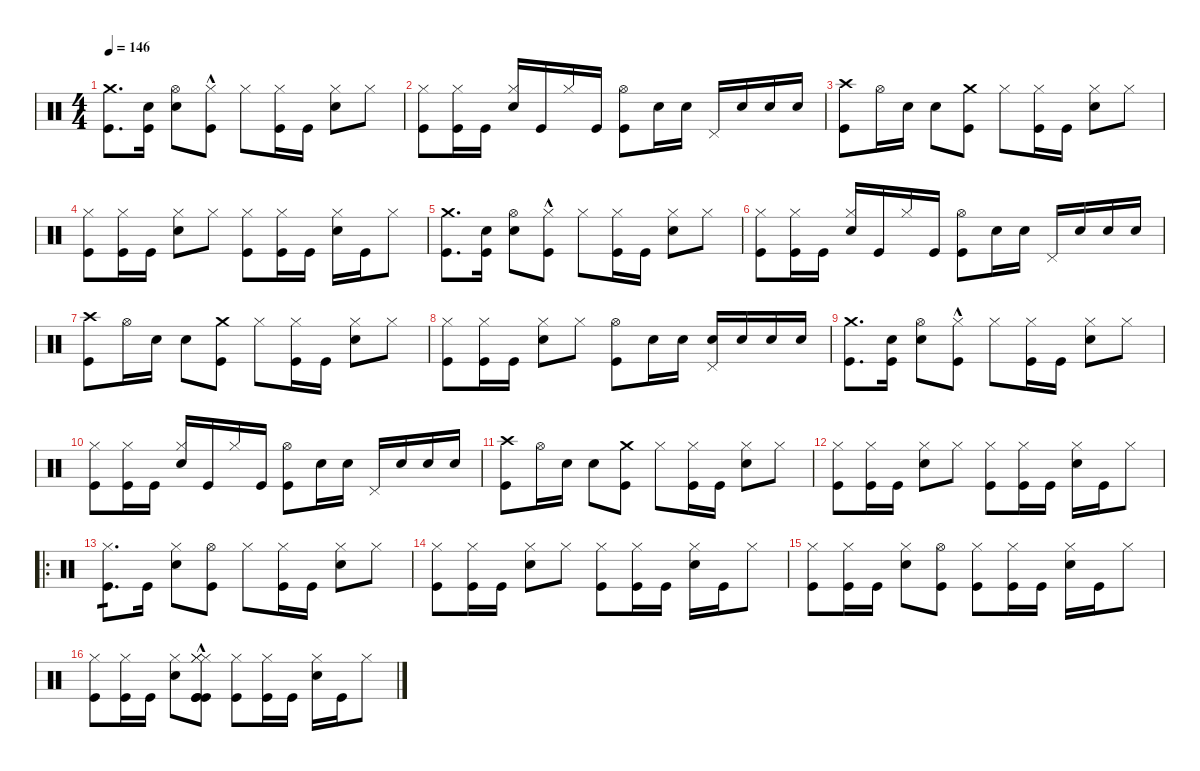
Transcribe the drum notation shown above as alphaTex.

\defaultSystemsLayout 4
\hideDynamics
\bracketExtendMode nobrackets
\singleTrackTrackNamePolicy hidden
\multiTrackTrackNamePolicy hidden
\firstSystemTrackNameMode fullname
\firstSystemTrackNameOrientation horizontal
\otherSystemsTrackNameOrientation horizontal
\track ("Drums" "drm.") {instrument percussion}
\staff {score}
\articulation defaults
\ts (4 4)
\tempo 146
\clef neutral
\ks c
("Crash medium (hit)" "Kick (hit)").8{d dy f beam Down} ("Snare (hit) 2" "Kick (hit)").16{beam Down} ("Hi-Hat (open)" "Snare (hit) 2").8{beam Down} ("Hi-Hat (closed)"{hac} "Kick (hit)"{hac}).8{beam Down} "Hi-Hat (closed)".8{beam Down} ("Hi-Hat (closed)" "Kick (hit)").16{beam Down} "Kick (hit)".16{beam Down} ("Hi-Hat (closed)" "Snare (hit) 2").8{beam Down} "Hi-Hat (closed)".8{beam Down} |
("Hi-Hat (closed)" "Kick (hit)").8{beam Down} ("Hi-Hat (closed)" "Kick (hit)").16{beam Down} "Kick (hit)".16{beam Down} ("Hi-Hat (closed)" "Snare (hit) 2").16{beam Up} "Kick (hit)".16{beam Up} "Hi-Hat (closed)".16{beam Up} "Kick (hit)".16{beam Up} ("Hi-Hat (open)" "Kick (hit)").8{beam Down} "Snare (hit) 2".16{beam Down} "Snare (hit) 2".16{beam Down} "Pedal Hi-Hat (hit)".16{beam Up} "Snare (hit) 2".16{beam Up} "Snare (hit) 2".16{beam Up} "Snare (hit) 2".16{beam Up} |
("Crash high (hit)" "Kick (hit)").8{beam Down} "Hi-Hat (open)".16{beam Down} "Snare (hit) 2".16{beam Down} "Snare (hit) 2".8{beam Down} ("Crash medium (hit)" "Kick (hit)").8{beam Down} "Hi-Hat (closed)".8{beam Down} ("Hi-Hat (closed)" "Kick (hit)").16{beam Down} "Kick (hit)".16{beam Down} ("Hi-Hat (closed)" "Snare (hit) 2").8{beam Down} "Hi-Hat (closed)".8{beam Down} |
("Hi-Hat (closed)" "Kick (hit)").8{beam Down} ("Hi-Hat (closed)" "Kick (hit)").16{beam Down} "Kick (hit)".16{beam Down} ("Hi-Hat (closed)" "Snare (hit) 2").8{beam Down} "Hi-Hat (closed)".8{beam Down} ("Hi-Hat (closed)" "Kick (hit)").8{beam Down} ("Hi-Hat (closed)" "Kick (hit)").16{beam Down} "Kick (hit)".16{beam Down} ("Hi-Hat (closed)" "Snare (hit) 2").16{beam Down} "Kick (hit)".16{beam Down} "Hi-Hat (closed)".8{beam Down} |
("Crash medium (hit)" "Kick (hit)").8{d beam Down} ("Snare (hit) 2" "Kick (hit)").16{beam Down} ("Hi-Hat (open)" "Snare (hit) 2").8{beam Down} ("Hi-Hat (closed)"{hac} "Kick (hit)"{hac}).8{beam Down} "Hi-Hat (closed)".8{beam Down} ("Hi-Hat (closed)" "Kick (hit)").16{beam Down} "Kick (hit)".16{beam Down} ("Hi-Hat (closed)" "Snare (hit) 2").8{beam Down} "Hi-Hat (closed)".8{beam Down} |
("Hi-Hat (closed)" "Kick (hit)").8{beam Down} ("Hi-Hat (closed)" "Kick (hit)").16{beam Down} "Kick (hit)".16{beam Down} ("Hi-Hat (closed)" "Snare (hit) 2").16{beam Up} "Kick (hit)".16{beam Up} "Hi-Hat (closed)".16{beam Up} "Kick (hit)".16{beam Up} ("Hi-Hat (open)" "Kick (hit)").8{beam Down} "Snare (hit) 2".16{beam Down} "Snare (hit) 2".16{beam Down} "Pedal Hi-Hat (hit)".16{beam Up} "Snare (hit) 2".16{beam Up} "Snare (hit) 2".16{beam Up} "Snare (hit) 2".16{beam Up} |
("Crash high (hit)" "Kick (hit)").8{beam Down} "Hi-Hat (open)".16{beam Down} "Snare (hit) 2".16{beam Down} "Snare (hit) 2".8{beam Down} ("Crash medium (hit)" "Kick (hit)").8{beam Down} "Hi-Hat (closed)".8{beam Down} ("Hi-Hat (closed)" "Kick (hit)").16{beam Down} "Kick (hit)".16{beam Down} ("Hi-Hat (closed)" "Snare (hit) 2").8{beam Down} "Hi-Hat (closed)".8{beam Down} |
("Hi-Hat (closed)" "Kick (hit)").8{beam Down} ("Hi-Hat (closed)" "Kick (hit)").16{beam Down} "Kick (hit)".16{beam Down} ("Hi-Hat (closed)" "Snare (hit) 2").8{beam Down} "Hi-Hat (closed)".8{beam Down} ("Hi-Hat (open)" "Kick (hit)").8{beam Down} "Snare (hit) 2".16{beam Down} "Snare (hit) 2".16{beam Down} ("Pedal Hi-Hat (hit)" "Snare (hit) 2").16{beam Up} "Snare (hit) 2".16{beam Up} "Snare (hit) 2".16{beam Up} "Snare (hit) 2".16{beam Up} |
("Crash medium (hit)" "Kick (hit)").8{d beam Down} ("Snare (hit) 2" "Kick (hit)").16{beam Down} ("Hi-Hat (open)" "Snare (hit) 2").8{beam Down} ("Hi-Hat (closed)"{hac} "Kick (hit)"{hac}).8{beam Down} "Hi-Hat (closed)".8{beam Down} ("Hi-Hat (closed)" "Kick (hit)").16{beam Down} "Kick (hit)".16{beam Down} ("Hi-Hat (closed)" "Snare (hit) 2").8{beam Down} "Hi-Hat (closed)".8{beam Down} |
("Hi-Hat (closed)" "Kick (hit)").8{beam Down} ("Hi-Hat (closed)" "Kick (hit)").16{beam Down} "Kick (hit)".16{beam Down} ("Hi-Hat (closed)" "Snare (hit) 2").16{beam Up} "Kick (hit)".16{beam Up} "Hi-Hat (closed)".16{beam Up} "Kick (hit)".16{beam Up} ("Hi-Hat (open)" "Kick (hit)").8{beam Down} "Snare (hit) 2".16{beam Down} "Snare (hit) 2".16{beam Down} "Pedal Hi-Hat (hit)".16{beam Up} "Snare (hit) 2".16{beam Up} "Snare (hit) 2".16{beam Up} "Snare (hit) 2".16{beam Up} |
("Crash high (hit)" "Kick (hit)").8{beam Down} "Hi-Hat (open)".16{beam Down} "Snare (hit) 2".16{beam Down} "Snare (hit) 2".8{beam Down} ("Crash medium (hit)" "Kick (hit)").8{beam Down} "Hi-Hat (closed)".8{beam Down} ("Hi-Hat (closed)" "Kick (hit)").16{beam Down} "Kick (hit)".16{beam Down} ("Hi-Hat (closed)" "Snare (hit) 2").8{beam Down} "Hi-Hat (closed)".8{beam Down} |
("Hi-Hat (closed)" "Kick (hit)").8{beam Down} ("Hi-Hat (closed)" "Kick (hit)").16{beam Down} "Kick (hit)".16{beam Down} ("Hi-Hat (closed)" "Snare (hit) 2").8{beam Down} "Hi-Hat (closed)".8{beam Down} ("Hi-Hat (closed)" "Kick (hit)").8{beam Down} ("Hi-Hat (closed)" "Kick (hit)").16{beam Down} "Kick (hit)".16{beam Down} ("Hi-Hat (closed)" "Snare (hit) 2").16{beam Down} "Kick (hit)".16{beam Down} "Hi-Hat (closed)".8{beam Down} |
\ro
("Hi-Hat (closed)" "Kick (hit)").8{d tp 1 beam Down} "Kick (hit)".16{beam Down} ("Hi-Hat (closed)" "Snare (hit) 2").8{beam Down} ("Hi-Hat (open)" "Kick (hit)").8{beam Down} "Hi-Hat (closed)".8{beam Down} ("Hi-Hat (closed)" "Kick (hit)").16{beam Down} "Kick (hit)".16{beam Down} ("Hi-Hat (closed)" "Snare (hit) 2").8{beam Down} "Hi-Hat (closed)".8{beam Down} |
("Hi-Hat (closed)" "Kick (hit)").8{beam Down} ("Hi-Hat (closed)" "Kick (hit)").16{beam Down} "Kick (hit)".16{beam Down} ("Hi-Hat (closed)" "Snare (hit) 2").8{beam Down} "Hi-Hat (closed)".8{beam Down} ("Hi-Hat (closed)" "Kick (hit)").8{beam Down} ("Hi-Hat (closed)" "Kick (hit)").16{beam Down} "Kick (hit)".16{beam Down} ("Hi-Hat (closed)" "Snare (hit) 2").16{beam Down} "Kick (hit)".16{beam Down} "Hi-Hat (closed)".8{beam Down} |
("Hi-Hat (closed)" "Kick (hit)").8{beam Down} ("Hi-Hat (closed)" "Kick (hit)").16{beam Down} "Kick (hit)".16{beam Down} ("Hi-Hat (closed)" "Snare (hit) 2").8{beam Down} ("Hi-Hat (open)" "Kick (hit)").8{beam Down} ("Hi-Hat (closed)" "Kick (hit)").8{beam Down} ("Hi-Hat (closed)" "Kick (hit)").16{beam Down} "Kick (hit)".16{beam Down} ("Hi-Hat (closed)" "Snare (hit) 2").16{beam Down} "Kick (hit)".16{beam Down} "Hi-Hat (closed)".8{beam Down} |
("Hi-Hat (closed)" "Kick (hit)").8{beam Down} ("Hi-Hat (closed)" "Kick (hit)").16{beam Down} "Kick (hit)".16{beam Down} ("Hi-Hat (closed)" "Snare (hit) 2").8{beam Down} ("Hi-Hat (closed)"{hac} "Hi-Hat (closed)"{hac} "Hi-Hat (closed)"{hac} "Kick (hit)"{hac} "Kick (hit)"{hac} "Kick (hit)"{hac}).8{beam Down} ("Hi-Hat (closed)" "Kick (hit)").8{beam Down} ("Hi-Hat (closed)" "Kick (hit)").16{beam Down} "Kick (hit)".16{beam Down} ("Hi-Hat (closed)" "Snare (hit) 2").16{beam Down} "Kick (hit)".16{beam Down} "Hi-Hat (closed)".8{beam Down}
